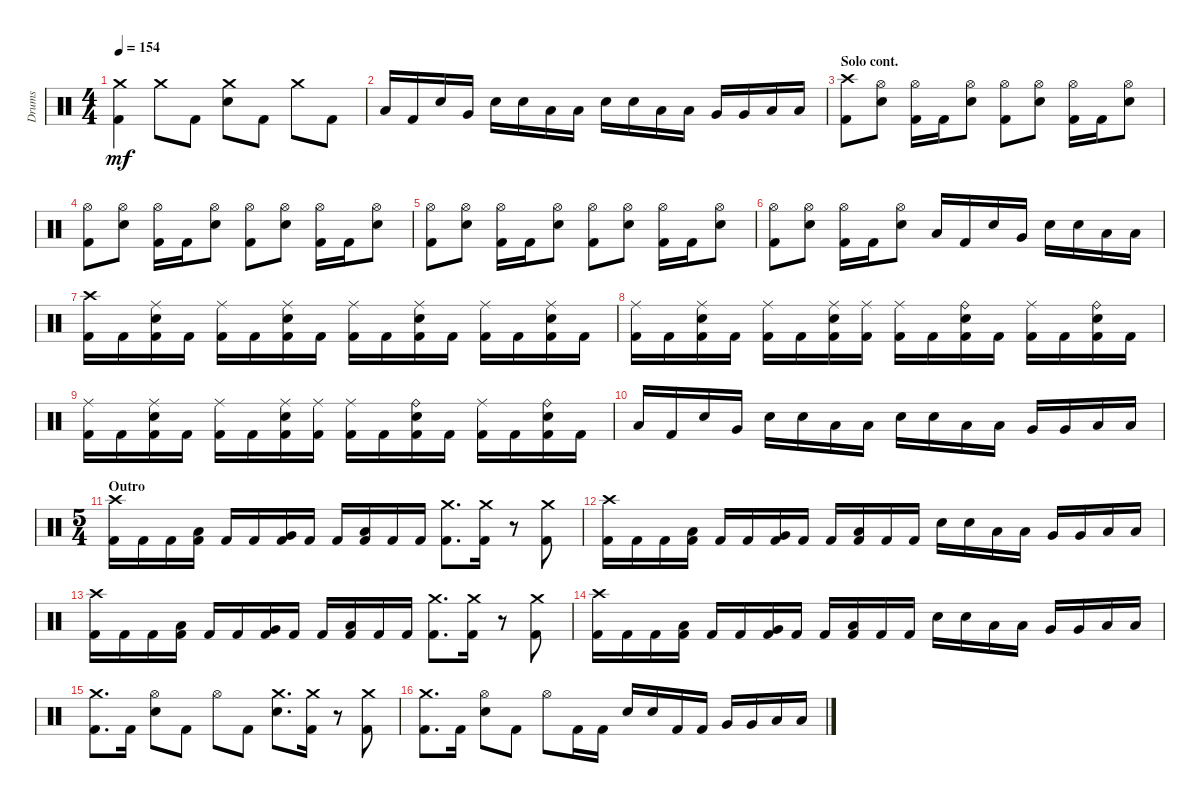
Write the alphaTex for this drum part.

\track ("Drums" "Drums") {instrument percussion}
\staff {score}
\articulation defaults
\ts (4 4)
\tempo 154
\clef neutral
\ks aminor
("Kick (hit) 2" "Crash medium (hit)").4{dy mf} "Crash medium (hit)".8 "Kick (hit) 2".8 ("Snare (hit) 2" "Crash medium (hit)").8 "Kick (hit) 2".8 "Crash medium (hit)".8 "Kick (hit) 2".8 |
"Low Tom (hit)".16 "Kick (hit) 2".16 "Snare (hit) 2".16 "Very Low Tom (hit)".16 "Snare (hit) 2".16 "Snare (hit) 2".16 "Low Floor Tom (hit)".16 "Low Floor Tom (hit)".16 "Snare (hit) 2".16 "Snare (hit) 2".16 "Low Tom (hit)".16 "Low Tom (hit)".16 "Very Low Tom (hit)".16 "Very Low Tom (hit)".16 "Low Floor Tom (hit)".16 "Low Floor Tom (hit)".16 |
\section ("" "Solo cont.")
("Kick (hit) 2" "Crash high (hit)").8 ("Hi-Hat (open)" "Snare (hit) 2").8 ("Kick (hit) 2" "Hi-Hat (open)").16 "Kick (hit) 2".16 ("Snare (hit) 2" "Hi-Hat (open)").8 ("Hi-Hat (open)" "Kick (hit) 2").8 ("Hi-Hat (open)" "Snare (hit) 2").8 ("Kick (hit) 2" "Hi-Hat (open)").16 "Kick (hit) 2".16 ("Snare (hit) 2" "Hi-Hat (open)").8 |
("Kick (hit) 2" "Hi-Hat (open)").8 ("Hi-Hat (open)" "Snare (hit) 2").8 ("Kick (hit) 2" "Hi-Hat (open)").16 "Kick (hit) 2".16 ("Snare (hit) 2" "Hi-Hat (open)").8 ("Kick (hit) 2" "Hi-Hat (open)").8 ("Hi-Hat (open)" "Snare (hit) 2").8 ("Hi-Hat (open)" "Kick (hit) 2").16 "Kick (hit) 2".16 ("Snare (hit) 2" "Hi-Hat (open)").8 |
("Kick (hit) 2" "Hi-Hat (open)").8 ("Snare (hit) 2" "Hi-Hat (open)").8 ("Kick (hit) 2" "Hi-Hat (open)").16 "Kick (hit) 2".16 ("Snare (hit) 2" "Hi-Hat (open)").8 ("Hi-Hat (open)" "Kick (hit) 2").8 ("Snare (hit) 2" "Hi-Hat (open)").8 ("Hi-Hat (open)" "Kick (hit) 2").16 "Kick (hit) 2".16 ("Snare (hit) 2" "Hi-Hat (open)").8 |
("Hi-Hat (open)" "Kick (hit) 2").8 ("Snare (hit) 2" "Hi-Hat (open)").8 ("Hi-Hat (open)" "Kick (hit) 2").16 "Kick (hit) 2".16 ("Hi-Hat (open)" "Snare (hit) 2").8 "Low Tom (hit)".16 "Kick (hit) 2".16 "Snare (hit) 2".16 "Very Low Tom (hit)".16 "Snare (hit) 2".16 "Snare (hit) 2".16 "Low Floor Tom (hit)".16 "Low Floor Tom (hit)".16 |
("Crash high (hit)" "Kick (hit) 2").16 "Kick (hit) 2".16 ("Kick (hit) 2" "Snare (hit) 2" "Ride (middle)").16 "Kick (hit) 2".16 ("Ride (middle)" "Kick (hit) 2").16 "Kick (hit) 2".16 ("Snare (hit) 2" "Kick (hit) 2" "Ride (middle)").16 "Kick (hit) 2".16 ("Kick (hit) 2" "Ride (middle)").16 "Kick (hit) 2".16 ("Kick (hit) 2" "Snare (hit) 2" "Ride (middle)").16 "Kick (hit) 2".16 ("Ride (middle)" "Kick (hit) 2").16 "Kick (hit) 2".16 ("Ride (middle)" "Snare (hit) 2" "Kick (hit) 2").16 "Kick (hit) 2".16 |
("Kick (hit) 2" "Ride (middle)").16 "Kick (hit) 2".16 ("Ride (middle)" "Kick (hit) 2" "Snare (hit) 2").16 "Kick (hit) 2".16 ("Kick (hit) 2" "Ride (middle)").16 "Kick (hit) 2".16 ("Kick (hit) 2" "Ride (middle)" "Snare (hit) 2").16 ("Ride (middle)" "Kick (hit) 2").16 ("Kick (hit) 2" "Ride (middle)").16 "Kick (hit) 2".16 ("Snare (hit) 2" "Ride (bell)" "Kick (hit) 2").16 "Kick (hit) 2".16 ("Ride (middle)" "Kick (hit) 2").16 "Kick (hit) 2".16 ("Ride (bell)" "Kick (hit) 2" "Snare (hit) 2").16 "Kick (hit) 2".16 |
("Kick (hit) 2" "Ride (middle)").16 "Kick (hit) 2".16 ("Kick (hit) 2" "Snare (hit) 2" "Ride (middle)").16 "Kick (hit) 2".16 ("Ride (middle)" "Kick (hit) 2").16 "Kick (hit) 2".16 ("Snare (hit) 2" "Kick (hit) 2" "Ride (middle)").16 ("Kick (hit) 2" "Ride (middle)").16 ("Kick (hit) 2" "Ride (middle)").16 "Kick (hit) 2".16 ("Snare (hit) 2" "Ride (bell)" "Kick (hit) 2").16 "Kick (hit) 2".16 ("Kick (hit) 2" "Ride (middle)").16 "Kick (hit) 2".16 ("Ride (bell)" "Snare (hit) 2" "Kick (hit) 2").16 "Kick (hit) 2".16 |
"Low Tom (hit)".16 "Kick (hit) 2".16 "Snare (hit) 2".16 "Very Low Tom (hit)".16 "Snare (hit) 2".16 "Snare (hit) 2".16 "Low Floor Tom (hit)".16 "Low Floor Tom (hit)".16 "Snare (hit) 2".16 "Snare (hit) 2".16 "Low Tom (hit)".16 "Low Tom (hit)".16 "Very Low Tom (hit)".16 "Very Low Tom (hit)".16 "Low Floor Tom (hit)".16 "Low Floor Tom (hit)".16 |
\ts (5 4)
\section ("" "Outro")
("Crash high (hit)" "Kick (hit) 2").16 "Kick (hit) 2".16 "Kick (hit) 2".16 ("Low Tom (hit)" "Kick (hit) 2").16 "Kick (hit) 2".16 "Kick (hit) 2".16 ("Very Low Tom (hit)" "Kick (hit) 2").16 "Kick (hit) 2".16 "Kick (hit) 2".16 ("Low Floor Tom (hit)" "Kick (hit) 2").16 "Kick (hit) 2".16 "Kick (hit) 2".16 ("Crash medium (hit)" "Kick (hit) 2").8{d} ("Crash medium (hit)" "Kick (hit) 2").16 r.8 ("Crash medium (hit)" "Kick (hit) 2").8 |
("Crash high (hit)" "Kick (hit) 2").16 "Kick (hit) 2".16 "Kick (hit) 2".16 ("Low Tom (hit)" "Kick (hit) 2").16 "Kick (hit) 2".16 "Kick (hit) 2".16 ("Very Low Tom (hit)" "Kick (hit) 2").16 "Kick (hit) 2".16 "Kick (hit) 2".16 ("Kick (hit) 2" "Low Floor Tom (hit)").16 "Kick (hit) 2".16 "Kick (hit) 2".16 "Snare (hit) 2".16 "Snare (hit) 2".16 "Low Tom (hit)".16 "Low Tom (hit)".16 "Very Low Tom (hit)".16 "Very Low Tom (hit)".16 "Low Floor Tom (hit)".16 "Low Floor Tom (hit)".16 |
("Kick (hit) 2" "Crash high (hit)").16 "Kick (hit) 2".16 "Kick (hit) 2".16 ("Low Tom (hit)" "Kick (hit) 2").16 "Kick (hit) 2".16 "Kick (hit) 2".16 ("Kick (hit) 2" "Very Low Tom (hit)").16 "Kick (hit) 2".16 "Kick (hit) 2".16 ("Kick (hit) 2" "Low Floor Tom (hit)").16 "Kick (hit) 2".16 "Kick (hit) 2".16 ("Kick (hit) 2" "Crash medium (hit)").8{d} ("Kick (hit) 2" "Crash medium (hit)").16 r.8 ("Kick (hit) 2" "Crash medium (hit)").8 |
("Kick (hit) 2" "Crash high (hit)").16 "Kick (hit) 2".16 "Kick (hit) 2".16 ("Kick (hit) 2" "Low Tom (hit)").16 "Kick (hit) 2".16 "Kick (hit) 2".16 ("Very Low Tom (hit)" "Kick (hit) 2").16 "Kick (hit) 2".16 "Kick (hit) 2".16 ("Kick (hit) 2" "Low Floor Tom (hit)").16 "Kick (hit) 2".16 "Kick (hit) 2".16 "Snare (hit) 2".16 "Snare (hit) 2".16 "Low Tom (hit)".16 "Low Tom (hit)".16 "Very Low Tom (hit)".16 "Very Low Tom (hit)".16 "Low Floor Tom (hit)".16 "Low Floor Tom (hit)".16 |
("Kick (hit) 2" "Crash medium (hit)").8{d} "Kick (hit) 2".16 ("Hi-Hat (open)" "Snare (hit) 2").8 "Kick (hit) 2".8 "Hi-Hat (open)".8 "Kick (hit) 2".8 ("Crash medium (hit)" "Snare (hit) 2").8{d} ("Crash medium (hit)" "Kick (hit) 2").16 r.8 ("Crash medium (hit)" "Kick (hit) 2").8 |
("Kick (hit) 2" "Crash medium (hit)").8{d} "Kick (hit) 2".16 ("Snare (hit) 2" "Hi-Hat (open)").8 "Kick (hit) 2".8 "Hi-Hat (open)".8 "Kick (hit) 2".16 "Kick (hit) 2".16 "Snare (hit) 2".16 "Snare (hit) 2".16 "Kick (hit) 2".16 "Kick (hit) 2".16 "Very Low Tom (hit)".16 "Very Low Tom (hit)".16 "Low Floor Tom (hit)".16 "Low Floor Tom (hit)".16
